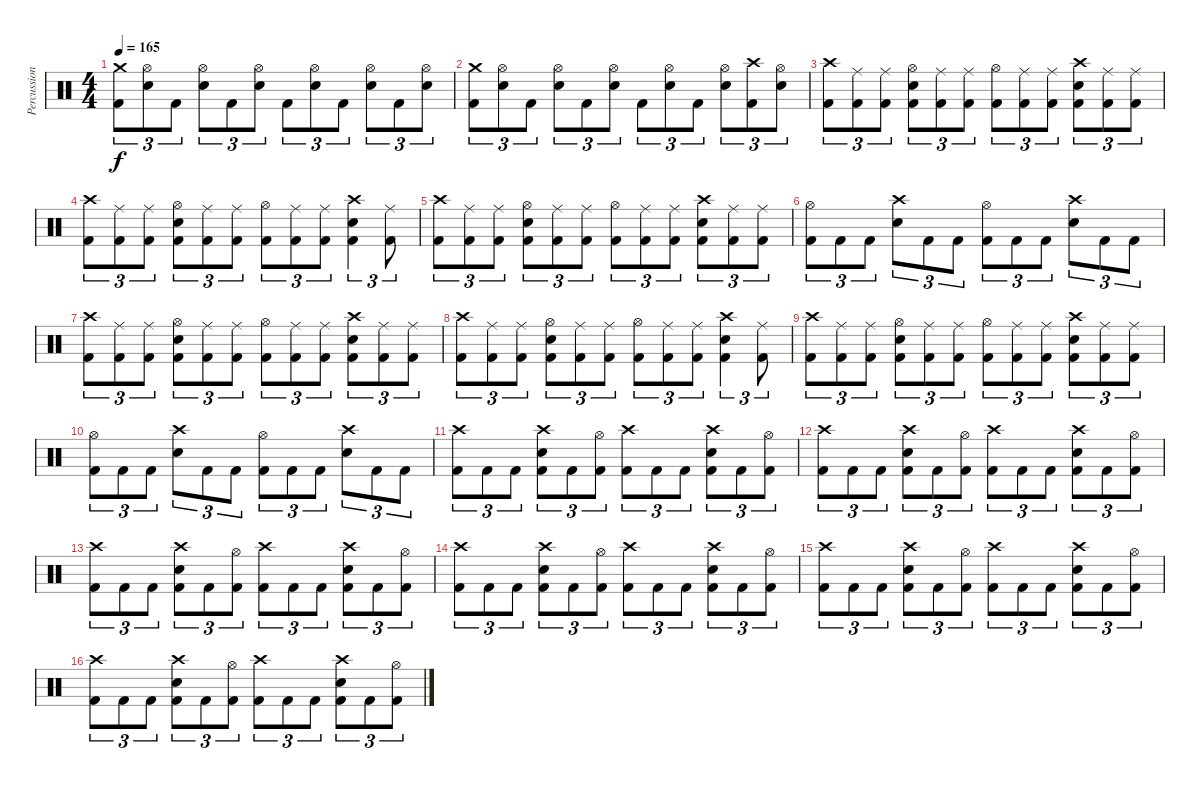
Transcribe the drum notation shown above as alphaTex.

\track ("Percussion" "Percussion") {instrument percussion}
\staff {score}
\articulation defaults
\ts (4 4)
\tempo 165
\clef neutral
\ks c
("Crash medium (hit)" "Kick (hit) 2").8{tu (3 2) dy f} ("Hi-Hat (open)" "Electric Snare (hit)").8{tu (3 2)} "Kick (hit) 2".8{tu (3 2)} ("Hi-Hat (open)" "Electric Snare (hit)").8{tu (3 2)} "Kick (hit) 2".8{tu (3 2)} ("Hi-Hat (open)" "Electric Snare (hit)").8{tu (3 2)} "Kick (hit) 2".8{tu (3 2)} ("Hi-Hat (open)" "Electric Snare (hit)").8{tu (3 2)} "Kick (hit) 2".8{tu (3 2)} ("Hi-Hat (open)" "Electric Snare (hit)").8{tu (3 2)} "Kick (hit) 2".8{tu (3 2)} ("Hi-Hat (open)" "Electric Snare (hit)").8{tu (3 2)} |
("Crash medium (hit)" "Kick (hit) 2").8{tu (3 2)} ("Hi-Hat (open)" "Electric Snare (hit)").8{tu (3 2)} "Kick (hit) 2".8{tu (3 2)} ("Hi-Hat (open)" "Electric Snare (hit)").8{tu (3 2)} "Kick (hit) 2".8{tu (3 2)} ("Hi-Hat (open)" "Electric Snare (hit)").8{tu (3 2)} "Kick (hit) 2".8{tu (3 2)} ("Hi-Hat (open)" "Electric Snare (hit)").8{tu (3 2)} "Kick (hit) 2".8{tu (3 2)} ("Hi-Hat (open)" "Electric Snare (hit)").8{tu (3 2)} ("Crash high (hit)" "Kick (hit) 2").8{tu (3 2)} ("Hi-Hat (open)" "Electric Snare (hit)").8{tu (3 2)} |
("Crash high (hit)" "Kick (hit) 2").8{tu (3 2)} ("Ride (middle)" "Kick (hit) 2").8{tu (3 2)} ("Ride (middle)" "Kick (hit) 2").8{tu (3 2)} ("Hi-Hat (open)" "Electric Snare (hit)" "Kick (hit) 2").8{tu (3 2)} ("Ride (middle)" "Kick (hit) 2").8{tu (3 2)} ("Ride (middle)" "Kick (hit) 2").8{tu (3 2)} ("Hi-Hat (open)" "Kick (hit) 2").8{tu (3 2)} ("Ride (middle)" "Kick (hit) 2").8{tu (3 2)} ("Ride (middle)" "Kick (hit) 2").8{tu (3 2)} ("Crash high (hit)" "Electric Snare (hit)" "Kick (hit) 2").8{tu (3 2)} ("Ride (middle)" "Kick (hit) 2").8{tu (3 2)} ("Ride (middle)" "Kick (hit) 2").8{tu (3 2)} |
("Crash high (hit)" "Kick (hit) 2").8{tu (3 2)} ("Ride (middle)" "Kick (hit) 2").8{tu (3 2)} ("Ride (middle)" "Kick (hit) 2").8{tu (3 2)} ("Hi-Hat (open)" "Electric Snare (hit)" "Kick (hit) 2").8{tu (3 2)} ("Ride (middle)" "Kick (hit) 2").8{tu (3 2)} ("Ride (middle)" "Kick (hit) 2").8{tu (3 2)} ("Hi-Hat (open)" "Kick (hit) 2").8{tu (3 2)} ("Ride (middle)" "Kick (hit) 2").8{tu (3 2)} ("Ride (middle)" "Kick (hit) 2").8{tu (3 2)} ("Crash high (hit)" "Electric Snare (hit)" "Kick (hit) 2").4{tu (3 2)} ("Ride (middle)" "Kick (hit) 2").8{tu (3 2)} |
("Crash high (hit)" "Kick (hit) 2").8{tu (3 2)} ("Ride (middle)" "Kick (hit) 2").8{tu (3 2)} ("Ride (middle)" "Kick (hit) 2").8{tu (3 2)} ("Hi-Hat (open)" "Electric Snare (hit)" "Kick (hit) 2").8{tu (3 2)} ("Ride (middle)" "Kick (hit) 2").8{tu (3 2)} ("Ride (middle)" "Kick (hit) 2").8{tu (3 2)} ("Hi-Hat (open)" "Kick (hit) 2").8{tu (3 2)} ("Ride (middle)" "Kick (hit) 2").8{tu (3 2)} ("Ride (middle)" "Kick (hit) 2").8{tu (3 2)} ("Crash high (hit)" "Electric Snare (hit)" "Kick (hit) 2").8{tu (3 2)} ("Ride (middle)" "Kick (hit) 2").8{tu (3 2)} ("Ride (middle)" "Kick (hit) 2").8{tu (3 2)} |
("Hi-Hat (open)" "Kick (hit) 2").8{tu (3 2)} "Kick (hit) 2".8{tu (3 2)} "Kick (hit) 2".8{tu (3 2)} ("Crash high (hit)" "Electric Snare (hit)").8{tu (3 2)} "Kick (hit) 2".8{tu (3 2)} "Kick (hit) 2".8{tu (3 2)} ("Hi-Hat (open)" "Kick (hit) 2").8{tu (3 2)} "Kick (hit) 2".8{tu (3 2)} "Kick (hit) 2".8{tu (3 2)} ("Crash high (hit)" "Electric Snare (hit)").8{tu (3 2)} "Kick (hit) 2".8{tu (3 2)} "Kick (hit) 2".8{tu (3 2)} |
("Crash high (hit)" "Kick (hit) 2").8{tu (3 2)} ("Ride (middle)" "Kick (hit) 2").8{tu (3 2)} ("Ride (middle)" "Kick (hit) 2").8{tu (3 2)} ("Hi-Hat (open)" "Electric Snare (hit)" "Kick (hit) 2").8{tu (3 2)} ("Ride (middle)" "Kick (hit) 2").8{tu (3 2)} ("Ride (middle)" "Kick (hit) 2").8{tu (3 2)} ("Hi-Hat (open)" "Kick (hit) 2").8{tu (3 2)} ("Ride (middle)" "Kick (hit) 2").8{tu (3 2)} ("Ride (middle)" "Kick (hit) 2").8{tu (3 2)} ("Crash high (hit)" "Electric Snare (hit)" "Kick (hit) 2").8{tu (3 2)} ("Ride (middle)" "Kick (hit) 2").8{tu (3 2)} ("Ride (middle)" "Kick (hit) 2").8{tu (3 2)} |
("Crash high (hit)" "Kick (hit) 2").8{tu (3 2)} ("Ride (middle)" "Kick (hit) 2").8{tu (3 2)} ("Ride (middle)" "Kick (hit) 2").8{tu (3 2)} ("Hi-Hat (open)" "Electric Snare (hit)" "Kick (hit) 2").8{tu (3 2)} ("Ride (middle)" "Kick (hit) 2").8{tu (3 2)} ("Ride (middle)" "Kick (hit) 2").8{tu (3 2)} ("Hi-Hat (open)" "Kick (hit) 2").8{tu (3 2)} ("Ride (middle)" "Kick (hit) 2").8{tu (3 2)} ("Ride (middle)" "Kick (hit) 2").8{tu (3 2)} ("Crash high (hit)" "Electric Snare (hit)" "Kick (hit) 2").4{tu (3 2)} ("Ride (middle)" "Kick (hit) 2").8{tu (3 2)} |
("Crash high (hit)" "Kick (hit) 2").8{tu (3 2)} ("Ride (middle)" "Kick (hit) 2").8{tu (3 2)} ("Ride (middle)" "Kick (hit) 2").8{tu (3 2)} ("Hi-Hat (open)" "Electric Snare (hit)" "Kick (hit) 2").8{tu (3 2)} ("Ride (middle)" "Kick (hit) 2").8{tu (3 2)} ("Ride (middle)" "Kick (hit) 2").8{tu (3 2)} ("Hi-Hat (open)" "Kick (hit) 2").8{tu (3 2)} ("Ride (middle)" "Kick (hit) 2").8{tu (3 2)} ("Ride (middle)" "Kick (hit) 2").8{tu (3 2)} ("Crash high (hit)" "Electric Snare (hit)" "Kick (hit) 2").8{tu (3 2)} ("Ride (middle)" "Kick (hit) 2").8{tu (3 2)} ("Ride (middle)" "Kick (hit) 2").8{tu (3 2)} |
("Hi-Hat (open)" "Kick (hit) 2").8{tu (3 2)} "Kick (hit) 2".8{tu (3 2)} "Kick (hit) 2".8{tu (3 2)} ("Crash high (hit)" "Electric Snare (hit)").8{tu (3 2)} "Kick (hit) 2".8{tu (3 2)} "Kick (hit) 2".8{tu (3 2)} ("Hi-Hat (open)" "Kick (hit) 2").8{tu (3 2)} "Kick (hit) 2".8{tu (3 2)} "Kick (hit) 2".8{tu (3 2)} ("Crash high (hit)" "Electric Snare (hit)").8{tu (3 2)} "Kick (hit) 2".8{tu (3 2)} "Kick (hit) 2".8{tu (3 2)} |
("Crash high (hit)" "Kick (hit) 2").8{tu (3 2)} "Kick (hit) 2".8{tu (3 2)} "Kick (hit) 2".8{tu (3 2)} ("Crash high (hit)" "Electric Snare (hit)" "Kick (hit) 2").8{tu (3 2)} "Kick (hit) 2".8{tu (3 2)} ("Hi-Hat (open)" "Kick (hit) 2").8{tu (3 2)} ("Crash high (hit)" "Kick (hit) 2").8{tu (3 2)} "Kick (hit) 2".8{tu (3 2)} "Kick (hit) 2".8{tu (3 2)} ("Crash high (hit)" "Electric Snare (hit)" "Kick (hit) 2").8{tu (3 2)} "Kick (hit) 2".8{tu (3 2)} ("Hi-Hat (open)" "Kick (hit) 2").8{tu (3 2)} |
("Crash high (hit)" "Kick (hit) 2").8{tu (3 2)} "Kick (hit) 2".8{tu (3 2)} "Kick (hit) 2".8{tu (3 2)} ("Crash high (hit)" "Electric Snare (hit)" "Kick (hit) 2").8{tu (3 2)} "Kick (hit) 2".8{tu (3 2)} ("Hi-Hat (open)" "Kick (hit) 2").8{tu (3 2)} ("Crash high (hit)" "Kick (hit) 2").8{tu (3 2)} "Kick (hit) 2".8{tu (3 2)} "Kick (hit) 2".8{tu (3 2)} ("Crash high (hit)" "Electric Snare (hit)" "Kick (hit) 2").8{tu (3 2)} "Kick (hit) 2".8{tu (3 2)} ("Hi-Hat (open)" "Kick (hit) 2").8{tu (3 2)} |
("Crash high (hit)" "Kick (hit) 2").8{tu (3 2)} "Kick (hit) 2".8{tu (3 2)} "Kick (hit) 2".8{tu (3 2)} ("Crash high (hit)" "Electric Snare (hit)" "Kick (hit) 2").8{tu (3 2)} "Kick (hit) 2".8{tu (3 2)} ("Hi-Hat (open)" "Kick (hit) 2").8{tu (3 2)} ("Crash high (hit)" "Kick (hit) 2").8{tu (3 2)} "Kick (hit) 2".8{tu (3 2)} "Kick (hit) 2".8{tu (3 2)} ("Crash high (hit)" "Electric Snare (hit)" "Kick (hit) 2").8{tu (3 2)} "Kick (hit) 2".8{tu (3 2)} ("Hi-Hat (open)" "Kick (hit) 2").8{tu (3 2)} |
("Crash high (hit)" "Kick (hit) 2").8{tu (3 2)} "Kick (hit) 2".8{tu (3 2)} "Kick (hit) 2".8{tu (3 2)} ("Crash high (hit)" "Electric Snare (hit)" "Kick (hit) 2").8{tu (3 2)} "Kick (hit) 2".8{tu (3 2)} ("Hi-Hat (open)" "Kick (hit) 2").8{tu (3 2)} ("Crash high (hit)" "Kick (hit) 2").8{tu (3 2)} "Kick (hit) 2".8{tu (3 2)} "Kick (hit) 2".8{tu (3 2)} ("Crash high (hit)" "Electric Snare (hit)" "Kick (hit) 2").8{tu (3 2)} "Kick (hit) 2".8{tu (3 2)} ("Hi-Hat (open)" "Kick (hit) 2").8{tu (3 2)} |
("Crash high (hit)" "Kick (hit) 2").8{tu (3 2)} "Kick (hit) 2".8{tu (3 2)} "Kick (hit) 2".8{tu (3 2)} ("Crash high (hit)" "Electric Snare (hit)" "Kick (hit) 2").8{tu (3 2)} "Kick (hit) 2".8{tu (3 2)} ("Hi-Hat (open)" "Kick (hit) 2").8{tu (3 2)} ("Crash high (hit)" "Kick (hit) 2").8{tu (3 2)} "Kick (hit) 2".8{tu (3 2)} "Kick (hit) 2".8{tu (3 2)} ("Crash high (hit)" "Electric Snare (hit)" "Kick (hit) 2").8{tu (3 2)} "Kick (hit) 2".8{tu (3 2)} ("Hi-Hat (open)" "Kick (hit) 2").8{tu (3 2)} |
("Crash high (hit)" "Kick (hit) 2").8{tu (3 2)} "Kick (hit) 2".8{tu (3 2)} "Kick (hit) 2".8{tu (3 2)} ("Crash high (hit)" "Electric Snare (hit)" "Kick (hit) 2").8{tu (3 2)} "Kick (hit) 2".8{tu (3 2)} ("Hi-Hat (open)" "Kick (hit) 2").8{tu (3 2)} ("Crash high (hit)" "Kick (hit) 2").8{tu (3 2)} "Kick (hit) 2".8{tu (3 2)} "Kick (hit) 2".8{tu (3 2)} ("Crash high (hit)" "Electric Snare (hit)" "Kick (hit) 2").8{tu (3 2)} "Kick (hit) 2".8{tu (3 2)} ("Hi-Hat (open)" "Kick (hit) 2").8{tu (3 2)}
